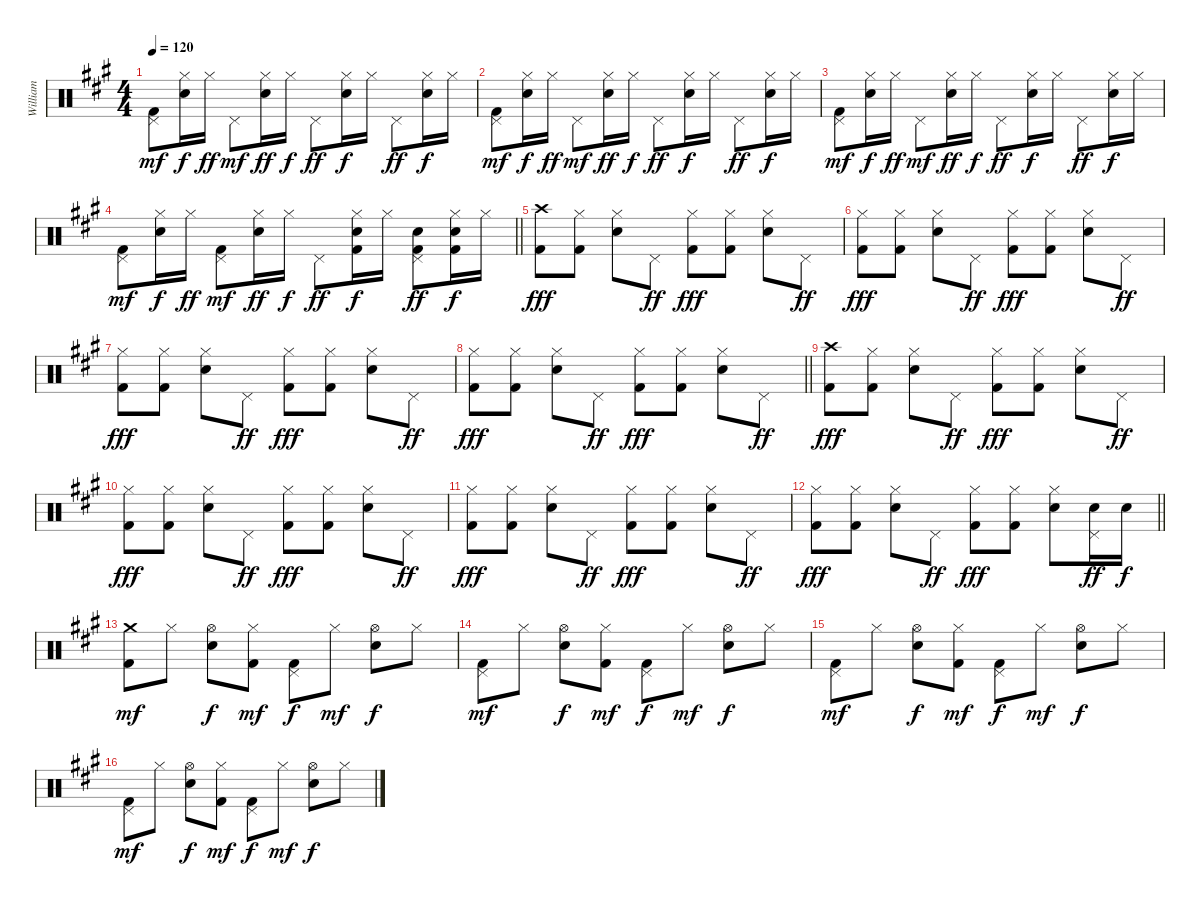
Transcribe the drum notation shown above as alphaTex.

\track ("William" "William") {instrument percussion}
\staff {score}
\articulation defaults
\ts (4 4)
\tempo 120
\clef neutral
\ks a
("Pedal Hi-Hat (hit)" "Kick (hit) 2").8{dy mf} ("Hi-Hat (closed)" "Snare (hit) 2").16{dy f} "Hi-Hat (closed)".16{dy ff} "Pedal Hi-Hat (hit)".8{dy mf} ("Hi-Hat (closed)" "Snare (hit) 2").16{dy ff} "Hi-Hat (closed)".16{dy f} "Pedal Hi-Hat (hit)".8{dy ff} ("Hi-Hat (closed)" "Snare (hit) 2").16{dy f} "Hi-Hat (closed)".16 "Pedal Hi-Hat (hit)".8{dy ff} ("Hi-Hat (closed)" "Snare (hit) 2").16{dy f} "Hi-Hat (closed)".16 |
("Pedal Hi-Hat (hit)" "Kick (hit) 2").8{dy mf} ("Hi-Hat (closed)" "Snare (hit) 2").16{dy f} "Hi-Hat (closed)".16{dy ff} "Pedal Hi-Hat (hit)".8{dy mf} ("Hi-Hat (closed)" "Snare (hit) 2").16{dy ff} "Hi-Hat (closed)".16{dy f} "Pedal Hi-Hat (hit)".8{dy ff} ("Hi-Hat (closed)" "Snare (hit) 2").16{dy f} "Hi-Hat (closed)".16 "Pedal Hi-Hat (hit)".8{dy ff} ("Hi-Hat (closed)" "Snare (hit) 2").16{dy f} "Hi-Hat (closed)".16 |
("Pedal Hi-Hat (hit)" "Kick (hit) 2").8{dy mf} ("Hi-Hat (closed)" "Snare (hit) 2").16{dy f} "Hi-Hat (closed)".16{dy ff} "Pedal Hi-Hat (hit)".8{dy mf} ("Hi-Hat (closed)" "Snare (hit) 2").16{dy ff} "Hi-Hat (closed)".16{dy f} "Pedal Hi-Hat (hit)".8{dy ff} ("Hi-Hat (closed)" "Snare (hit) 2").16{dy f} "Hi-Hat (closed)".16 "Pedal Hi-Hat (hit)".8{dy ff} ("Hi-Hat (closed)" "Snare (hit) 2").16{dy f} "Hi-Hat (closed)".16 |
\barLineRight lightlight
("Pedal Hi-Hat (hit)" "Kick (hit) 2").8{dy mf} ("Hi-Hat (closed)" "Snare (hit) 2").16{dy f} "Hi-Hat (closed)".16{dy ff} ("Pedal Hi-Hat (hit)" "Kick (hit) 2").8{dy mf} ("Hi-Hat (closed)" "Snare (hit) 2").16{dy ff} "Hi-Hat (closed)".16{dy f} "Pedal Hi-Hat (hit)".8{dy ff} ("Hi-Hat (closed)" "Snare (hit) 2" "Kick (hit) 2").16{dy f} "Hi-Hat (closed)".16 ("Pedal Hi-Hat (hit)" "Snare (hit) 2" "Kick (hit) 2").8{dy ff} ("Hi-Hat (closed)" "Snare (hit) 2" "Kick (hit) 2").16{dy f} "Hi-Hat (closed)".16 |
("Crash high (hit)" "Kick (hit) 2").8{dy fff} ("Hi-Hat (closed)" "Kick (hit) 2").8 ("Hi-Hat (closed)" "Snare (hit) 2").8 "Pedal Hi-Hat (hit)".8{dy ff} ("Hi-Hat (closed)" "Kick (hit) 2").8{dy fff} ("Hi-Hat (closed)" "Kick (hit) 2").8 ("Hi-Hat (closed)" "Snare (hit) 2").8 "Pedal Hi-Hat (hit)".8{dy ff} |
("Hi-Hat (closed)" "Kick (hit) 2").8{dy fff} ("Hi-Hat (closed)" "Kick (hit) 2").8 ("Hi-Hat (closed)" "Snare (hit) 2").8 "Pedal Hi-Hat (hit)".8{dy ff} ("Hi-Hat (closed)" "Kick (hit) 2").8{dy fff} ("Hi-Hat (closed)" "Kick (hit) 2").8 ("Hi-Hat (closed)" "Snare (hit) 2").8 "Pedal Hi-Hat (hit)".8{dy ff} |
("Hi-Hat (closed)" "Kick (hit) 2").8{dy fff} ("Hi-Hat (closed)" "Kick (hit) 2").8 ("Hi-Hat (closed)" "Snare (hit) 2").8 "Pedal Hi-Hat (hit)".8{dy ff} ("Hi-Hat (closed)" "Kick (hit) 2").8{dy fff} ("Hi-Hat (closed)" "Kick (hit) 2").8 ("Hi-Hat (closed)" "Snare (hit) 2").8 "Pedal Hi-Hat (hit)".8{dy ff} |
\barLineRight lightlight
("Hi-Hat (closed)" "Kick (hit) 2").8{dy fff} ("Hi-Hat (closed)" "Kick (hit) 2").8 ("Hi-Hat (closed)" "Snare (hit) 2").8 "Pedal Hi-Hat (hit)".8{dy ff} ("Hi-Hat (closed)" "Kick (hit) 2").8{dy fff} ("Hi-Hat (closed)" "Kick (hit) 2").8 ("Hi-Hat (closed)" "Snare (hit) 2").8 "Pedal Hi-Hat (hit)".8{dy ff} |
("Crash high (hit)" "Kick (hit) 2").8{dy fff} ("Hi-Hat (closed)" "Kick (hit) 2").8 ("Hi-Hat (closed)" "Snare (hit) 2").8 "Pedal Hi-Hat (hit)".8{dy ff} ("Hi-Hat (closed)" "Kick (hit) 2").8{dy fff} ("Hi-Hat (closed)" "Kick (hit) 2").8 ("Hi-Hat (closed)" "Snare (hit) 2").8 "Pedal Hi-Hat (hit)".8{dy ff} |
("Hi-Hat (closed)" "Kick (hit) 2").8{dy fff} ("Hi-Hat (closed)" "Kick (hit) 2").8 ("Hi-Hat (closed)" "Snare (hit) 2").8 "Pedal Hi-Hat (hit)".8{dy ff} ("Hi-Hat (closed)" "Kick (hit) 2").8{dy fff} ("Hi-Hat (closed)" "Kick (hit) 2").8 ("Hi-Hat (closed)" "Snare (hit) 2").8 "Pedal Hi-Hat (hit)".8{dy ff} |
("Hi-Hat (closed)" "Kick (hit) 2").8{dy fff} ("Hi-Hat (closed)" "Kick (hit) 2").8 ("Hi-Hat (closed)" "Snare (hit) 2").8 "Pedal Hi-Hat (hit)".8{dy ff} ("Hi-Hat (closed)" "Kick (hit) 2").8{dy fff} ("Hi-Hat (closed)" "Kick (hit) 2").8 ("Hi-Hat (closed)" "Snare (hit) 2").8 "Pedal Hi-Hat (hit)".8{dy ff} |
\barLineRight lightlight
("Hi-Hat (closed)" "Kick (hit) 2").8{dy fff} ("Hi-Hat (closed)" "Kick (hit) 2").8 ("Hi-Hat (closed)" "Snare (hit) 2").8 "Pedal Hi-Hat (hit)".8{dy ff} ("Hi-Hat (closed)" "Kick (hit) 2").8{dy fff} ("Hi-Hat (closed)" "Kick (hit) 2").8 ("Hi-Hat (closed)" "Snare (hit) 2").8 ("Pedal Hi-Hat (hit)" "Snare (hit) 2").16{dy ff} "Snare (hit) 2".16{dy f} |
("Crash medium (hit)" "Kick (hit) 2").8{dy mf} "Hi-Hat (closed)".8 ("Hi-Hat (open)" "Snare (hit) 2").8{dy f} ("Hi-Hat (closed)" "Kick (hit) 2").8{dy mf} ("Pedal Hi-Hat (hit)" "Kick (hit) 2").8{dy f} "Hi-Hat (closed)".8{dy mf} ("Hi-Hat (open)" "Snare (hit) 2").8{dy f} "Hi-Hat (closed)".8 |
("Pedal Hi-Hat (hit)" "Kick (hit) 2").8{dy mf} "Hi-Hat (closed)".8 ("Hi-Hat (open)" "Snare (hit) 2").8{dy f} ("Hi-Hat (closed)" "Kick (hit) 2").8{dy mf} ("Pedal Hi-Hat (hit)" "Kick (hit) 2").8{dy f} "Hi-Hat (closed)".8{dy mf} ("Hi-Hat (open)" "Snare (hit) 2").8{dy f} "Hi-Hat (closed)".8 |
("Pedal Hi-Hat (hit)" "Kick (hit) 2").8{dy mf} "Hi-Hat (closed)".8 ("Hi-Hat (open)" "Snare (hit) 2").8{dy f} ("Hi-Hat (closed)" "Kick (hit) 2").8{dy mf} ("Pedal Hi-Hat (hit)" "Kick (hit) 2").8{dy f} "Hi-Hat (closed)".8{dy mf} ("Hi-Hat (open)" "Snare (hit) 2").8{dy f} "Hi-Hat (closed)".8 |
("Pedal Hi-Hat (hit)" "Kick (hit) 2").8{dy mf} "Hi-Hat (closed)".8 ("Hi-Hat (open)" "Snare (hit) 2").8{dy f} ("Hi-Hat (closed)" "Kick (hit) 2").8{dy mf} ("Pedal Hi-Hat (hit)" "Kick (hit) 2").8{dy f} "Hi-Hat (closed)".8{dy mf} ("Hi-Hat (open)" "Snare (hit) 2").8{dy f} "Hi-Hat (closed)".8
